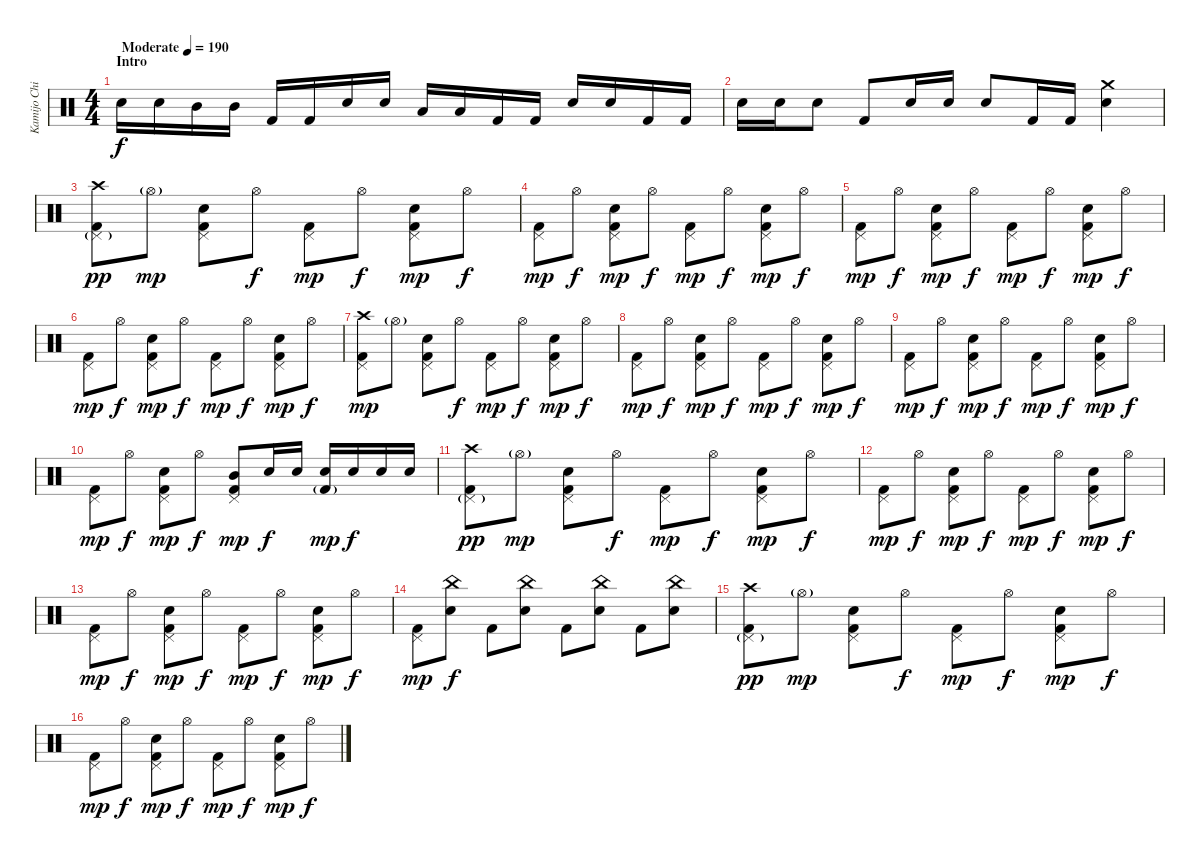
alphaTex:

\track ("Kamijo Chihiro" "Kamijo Chi") {instrument percussion}
\staff {score}
\articulation defaults
\ts (4 4)
\section ("" "Intro")
\tempo (190 "Moderate")
\clef neutral
\ks c "Snare (hit) 2".16{dy f} "Snare (hit) 2".16 "Mid Tom (hit)".16 "Mid Tom (hit)".16 "Kick (hit) 2".16 "Kick (hit) 2".16 "Snare (hit) 2".16 "Snare (hit) 2".16 "Low Tom (hit)".16 "Low Tom (hit)".16 "Kick (hit) 2".16 "Kick (hit) 2".16 "Snare (hit) 2".16 "Snare (hit) 2".16 "Kick (hit) 2".16 "Kick (hit) 2".16
|
"Snare (hit) 2".16 "Snare (hit) 2".16 "Snare (hit) 2".8 "Kick (hit) 2".8 "Snare (hit) 2".16 "Snare (hit) 2".16 "Snare (hit) 2".8 "Kick (hit) 2".16 "Kick (hit) 2".16 ("Crash medium (hit)" "Snare (hit) 2").4 |
("Crash high (hit)" "Pedal Hi-Hat (hit)"{g} "Kick (hit) 2").8{dy pp} "Hi-Hat (open)"{g}.8{dy mp} ("Pedal Hi-Hat (hit)" "Snare (hit) 2" "Kick (hit) 2").8 "Hi-Hat (open)".8{dy f} ("Pedal Hi-Hat (hit)" "Kick (hit) 2").8{dy mp} "Hi-Hat (open)".8{dy f} ("Pedal Hi-Hat (hit)" "Snare (hit) 2" "Kick (hit) 2").8{dy mp} "Hi-Hat (open)".8{dy f} |
("Pedal Hi-Hat (hit)" "Kick (hit) 2").8{dy mp} "Hi-Hat (open)".8{dy f} ("Pedal Hi-Hat (hit)" "Snare (hit) 2" "Kick (hit) 2").8{dy mp} "Hi-Hat (open)".8{dy f} ("Pedal Hi-Hat (hit)" "Kick (hit) 2").8{dy mp} "Hi-Hat (open)".8{dy f} ("Pedal Hi-Hat (hit)" "Snare (hit) 2" "Kick (hit) 2").8{dy mp} "Hi-Hat (open)".8{dy f} |
("Pedal Hi-Hat (hit)" "Kick (hit) 2").8{dy mp} "Hi-Hat (open)".8{dy f} ("Pedal Hi-Hat (hit)" "Snare (hit) 2" "Kick (hit) 2").8{dy mp} "Hi-Hat (open)".8{dy f} ("Pedal Hi-Hat (hit)" "Kick (hit) 2").8{dy mp} "Hi-Hat (open)".8{dy f} ("Pedal Hi-Hat (hit)" "Snare (hit) 2" "Kick (hit) 2").8{dy mp} "Hi-Hat (open)".8{dy f} |
("Pedal Hi-Hat (hit)" "Kick (hit) 2").8{dy mp} "Hi-Hat (open)".8{dy f} ("Pedal Hi-Hat (hit)" "Snare (hit) 2" "Kick (hit) 2").8{dy mp} "Hi-Hat (open)".8{dy f} ("Pedal Hi-Hat (hit)" "Kick (hit) 2").8{dy mp} "Hi-Hat (open)".8{dy f} ("Pedal Hi-Hat (hit)" "Snare (hit) 2" "Kick (hit) 2").8{dy mp} "Hi-Hat (open)".8{dy f} |
("Crash high (hit)" "Pedal Hi-Hat (hit)" "Kick (hit) 2").8{dy mp} "Hi-Hat (open)"{g}.8 ("Pedal Hi-Hat (hit)" "Snare (hit) 2" "Kick (hit) 2").8 "Hi-Hat (open)".8{dy f} ("Pedal Hi-Hat (hit)" "Kick (hit) 2").8{dy mp} "Hi-Hat (open)".8{dy f} ("Pedal Hi-Hat (hit)" "Snare (hit) 2" "Kick (hit) 2").8{dy mp} "Hi-Hat (open)".8{dy f} |
("Pedal Hi-Hat (hit)" "Kick (hit) 2").8{dy mp} "Hi-Hat (open)".8{dy f} ("Pedal Hi-Hat (hit)" "Snare (hit) 2" "Kick (hit) 2").8{dy mp} "Hi-Hat (open)".8{dy f} ("Pedal Hi-Hat (hit)" "Kick (hit) 2").8{dy mp} "Hi-Hat (open)".8{dy f} ("Pedal Hi-Hat (hit)" "Snare (hit) 2" "Kick (hit) 2").8{dy mp} "Hi-Hat (open)".8{dy f} |
("Pedal Hi-Hat (hit)" "Kick (hit) 2").8{dy mp} "Hi-Hat (open)".8{dy f} ("Pedal Hi-Hat (hit)" "Snare (hit) 2" "Kick (hit) 2").8{dy mp} "Hi-Hat (open)".8{dy f} ("Pedal Hi-Hat (hit)" "Kick (hit) 2").8{dy mp} "Hi-Hat (open)".8{dy f} ("Pedal Hi-Hat (hit)" "Snare (hit) 2" "Kick (hit) 2").8{dy mp} "Hi-Hat (open)".8{dy f} |
("Pedal Hi-Hat (hit)" "Kick (hit) 2").8{dy mp} "Hi-Hat (open)".8{dy f} ("Pedal Hi-Hat (hit)" "Snare (hit) 2" "Kick (hit) 2").8{dy mp} "Hi-Hat (open)".8{dy f} ("Pedal Hi-Hat (hit)" "Mid Tom (hit)" "Kick (hit) 2").8{dy mp} "Snare (hit) 2".16{dy f} "Snare (hit) 2".16 ("Snare (hit) 2" "Kick (hit) 2"{g}).16{dy mp} "Snare (hit) 2".16{dy f} "Snare (hit) 2".16 "Snare (hit) 2".16 |
("Crash high (hit)" "Pedal Hi-Hat (hit)"{g} "Kick (hit) 2").8{dy pp} "Hi-Hat (open)"{g}.8{dy mp} ("Pedal Hi-Hat (hit)" "Snare (hit) 2" "Kick (hit) 2").8 "Hi-Hat (open)".8{dy f} ("Pedal Hi-Hat (hit)" "Kick (hit) 2").8{dy mp} "Hi-Hat (open)".8{dy f} ("Pedal Hi-Hat (hit)" "Snare (hit) 2" "Kick (hit) 2").8{dy mp} "Hi-Hat (open)".8{dy f} |
("Pedal Hi-Hat (hit)" "Kick (hit) 2").8{dy mp} "Hi-Hat (open)".8{dy f} ("Pedal Hi-Hat (hit)" "Snare (hit) 2" "Kick (hit) 2").8{dy mp} "Hi-Hat (open)".8{dy f} ("Pedal Hi-Hat (hit)" "Kick (hit) 2").8{dy mp} "Hi-Hat (open)".8{dy f} ("Pedal Hi-Hat (hit)" "Snare (hit) 2" "Kick (hit) 2").8{dy mp} "Hi-Hat (open)".8{dy f} |
("Pedal Hi-Hat (hit)" "Kick (hit) 2").8{dy mp} "Hi-Hat (open)".8{dy f} ("Pedal Hi-Hat (hit)" "Snare (hit) 2" "Kick (hit) 2").8{dy mp} "Hi-Hat (open)".8{dy f} ("Pedal Hi-Hat (hit)" "Kick (hit) 2").8{dy mp} "Hi-Hat (open)".8{dy f} ("Pedal Hi-Hat (hit)" "Snare (hit) 2" "Kick (hit) 2").8{dy mp} "Hi-Hat (open)".8{dy f} |
("Pedal Hi-Hat (hit)" "Kick (hit) 2").8{dy mp} ("China (hit)" "Snare (hit) 2").8{dy f} "Kick (hit) 2".8 ("China (hit)" "Snare (hit) 2").8 "Kick (hit) 2".8 ("China (hit)" "Snare (hit) 2").8 "Kick (hit) 2".8 ("China (hit)" "Snare (hit) 2").8 |
("Crash high (hit)" "Pedal Hi-Hat (hit)"{g} "Kick (hit) 2").8{dy pp} "Hi-Hat (open)"{g}.8{dy mp} ("Pedal Hi-Hat (hit)" "Snare (hit) 2" "Kick (hit) 2").8 "Hi-Hat (open)".8{dy f} ("Pedal Hi-Hat (hit)" "Kick (hit) 2").8{dy mp} "Hi-Hat (open)".8{dy f} ("Pedal Hi-Hat (hit)" "Snare (hit) 2" "Kick (hit) 2").8{dy mp} "Hi-Hat (open)".8{dy f} |
("Pedal Hi-Hat (hit)" "Kick (hit) 2").8{dy mp} "Hi-Hat (open)".8{dy f} ("Pedal Hi-Hat (hit)" "Snare (hit) 2" "Kick (hit) 2").8{dy mp} "Hi-Hat (open)".8{dy f} ("Pedal Hi-Hat (hit)" "Kick (hit) 2").8{dy mp} "Hi-Hat (open)".8{dy f} ("Pedal Hi-Hat (hit)" "Snare (hit) 2" "Kick (hit) 2").8{dy mp} "Hi-Hat (open)".8{dy f}
